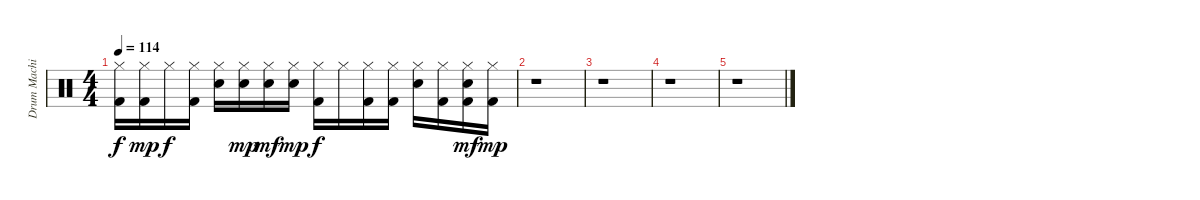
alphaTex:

\track ("Drum Machine" "Drum Machi") {instrument percussion}
\staff {score}
\articulation defaults
\ts (4 4)
\tempo 114
\clef neutral
\ks c
("Hi-Hat (closed)" "Kick (hit) 2").16{dy f} ("Hi-Hat (closed)" "Kick (hit) 2").16{dy mp} "Hi-Hat (closed)".16{dy f} ("Hi-Hat (closed)" "Kick (hit) 2").16 ("Hi-Hat (closed)" "Electric Snare (hit)").16 ("Hi-Hat (closed)" "Electric Snare (hit)").16{dy mp} ("Hi-Hat (closed)" "Electric Snare (hit)").16{dy mf} ("Hi-Hat (closed)" "Electric Snare (hit)").16{dy mp} ("Hi-Hat (closed)" "Kick (hit) 2").16{dy f} "Hi-Hat (closed)".16 ("Hi-Hat (closed)" "Kick (hit) 2").16 ("Hi-Hat (closed)" "Kick (hit) 2").16 ("Hi-Hat (closed)" "Electric Snare (hit)").16 ("Hi-Hat (closed)" "Kick (hit) 2").16 ("Hi-Hat (closed)" "Electric Snare (hit)" "Kick (hit) 2").16{dy mf} ("Hi-Hat (closed)" "Kick (hit) 2").16{dy mp} |
r.1 |
r.1 |
r.1 |
r.1
